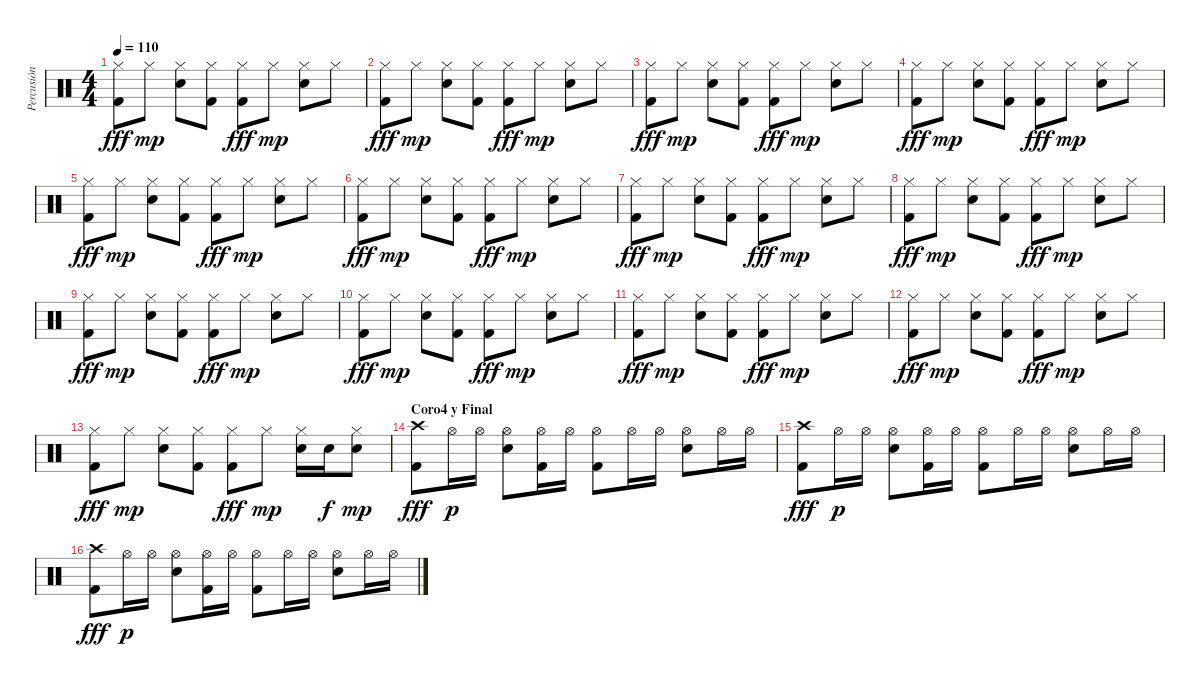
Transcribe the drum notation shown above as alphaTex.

\track ("Percusión" "Percusión") {instrument percussion}
\staff {score}
\articulation defaults
\ts (4 4)
\tempo 110
\clef neutral
\ks c
("Hi-Hat (closed)" "Kick (hit) 2").8{dy fff} "Hi-Hat (closed)".8{dy mp} ("Hi-Hat (closed)" "Snare (hit) 2").8 ("Hi-Hat (closed)" "Kick (hit) 2").8 ("Hi-Hat (closed)" "Kick (hit) 2").8{dy fff} "Hi-Hat (closed)".8{dy mp} ("Hi-Hat (closed)" "Snare (hit) 2").8 "Hi-Hat (closed)".8 |
("Hi-Hat (closed)" "Kick (hit) 2").8{dy fff} "Hi-Hat (closed)".8{dy mp} ("Hi-Hat (closed)" "Snare (hit) 2").8 ("Hi-Hat (closed)" "Kick (hit) 2").8 ("Hi-Hat (closed)" "Kick (hit) 2").8{dy fff} "Hi-Hat (closed)".8{dy mp} ("Hi-Hat (closed)" "Snare (hit) 2").8 "Hi-Hat (closed)".8 |
("Hi-Hat (closed)" "Kick (hit) 2").8{dy fff} "Hi-Hat (closed)".8{dy mp} ("Hi-Hat (closed)" "Snare (hit) 2").8 ("Hi-Hat (closed)" "Kick (hit) 2").8 ("Hi-Hat (closed)" "Kick (hit) 2").8{dy fff} "Hi-Hat (closed)".8{dy mp} ("Hi-Hat (closed)" "Snare (hit) 2").8 "Hi-Hat (closed)".8 |
("Hi-Hat (closed)" "Kick (hit) 2").8{dy fff} "Hi-Hat (closed)".8{dy mp} ("Hi-Hat (closed)" "Snare (hit) 2").8 ("Hi-Hat (closed)" "Kick (hit) 2").8 ("Hi-Hat (closed)" "Kick (hit) 2").8{dy fff} "Hi-Hat (closed)".8{dy mp} ("Hi-Hat (closed)" "Snare (hit) 2").8 "Hi-Hat (closed)".8 |
("Hi-Hat (closed)" "Kick (hit) 2").8{dy fff} "Hi-Hat (closed)".8{dy mp} ("Hi-Hat (closed)" "Snare (hit) 2").8 ("Hi-Hat (closed)" "Kick (hit) 2").8 ("Hi-Hat (closed)" "Kick (hit) 2").8{dy fff} "Hi-Hat (closed)".8{dy mp} ("Hi-Hat (closed)" "Snare (hit) 2").8 "Hi-Hat (closed)".8 |
("Hi-Hat (closed)" "Kick (hit) 2").8{dy fff} "Hi-Hat (closed)".8{dy mp} ("Hi-Hat (closed)" "Snare (hit) 2").8 ("Hi-Hat (closed)" "Kick (hit) 2").8 ("Hi-Hat (closed)" "Kick (hit) 2").8{dy fff} "Hi-Hat (closed)".8{dy mp} ("Hi-Hat (closed)" "Snare (hit) 2").8 "Hi-Hat (closed)".8 |
("Hi-Hat (closed)" "Kick (hit) 2").8{dy fff} "Hi-Hat (closed)".8{dy mp} ("Hi-Hat (closed)" "Snare (hit) 2").8 ("Hi-Hat (closed)" "Kick (hit) 2").8 ("Hi-Hat (closed)" "Kick (hit) 2").8{dy fff} "Hi-Hat (closed)".8{dy mp} ("Hi-Hat (closed)" "Snare (hit) 2").8 "Hi-Hat (closed)".8 |
("Hi-Hat (closed)" "Kick (hit) 2").8{dy fff} "Hi-Hat (closed)".8{dy mp} ("Hi-Hat (closed)" "Snare (hit) 2").8 ("Hi-Hat (closed)" "Kick (hit) 2").8 ("Hi-Hat (closed)" "Kick (hit) 2").8{dy fff} "Hi-Hat (closed)".8{dy mp} ("Hi-Hat (closed)" "Snare (hit) 2").8 "Hi-Hat (closed)".8 |
("Hi-Hat (closed)" "Kick (hit) 2").8{dy fff} "Hi-Hat (closed)".8{dy mp} ("Hi-Hat (closed)" "Snare (hit) 2").8 ("Hi-Hat (closed)" "Kick (hit) 2").8 ("Hi-Hat (closed)" "Kick (hit) 2").8{dy fff} "Hi-Hat (closed)".8{dy mp} ("Hi-Hat (closed)" "Snare (hit) 2").8 "Hi-Hat (closed)".8 |
("Hi-Hat (closed)" "Kick (hit) 2").8{dy fff} "Hi-Hat (closed)".8{dy mp} ("Hi-Hat (closed)" "Snare (hit) 2").8 ("Hi-Hat (closed)" "Kick (hit) 2").8 ("Hi-Hat (closed)" "Kick (hit) 2").8{dy fff} "Hi-Hat (closed)".8{dy mp} ("Hi-Hat (closed)" "Snare (hit) 2").8 "Hi-Hat (closed)".8 |
("Hi-Hat (closed)" "Kick (hit) 2").8{dy fff} "Hi-Hat (closed)".8{dy mp} ("Hi-Hat (closed)" "Snare (hit) 2").8 ("Hi-Hat (closed)" "Kick (hit) 2").8 ("Hi-Hat (closed)" "Kick (hit) 2").8{dy fff} "Hi-Hat (closed)".8{dy mp} ("Hi-Hat (closed)" "Snare (hit) 2").8 "Hi-Hat (closed)".8 |
("Hi-Hat (closed)" "Kick (hit) 2").8{dy fff} "Hi-Hat (closed)".8{dy mp} ("Hi-Hat (closed)" "Snare (hit) 2").8 ("Hi-Hat (closed)" "Kick (hit) 2").8 ("Hi-Hat (closed)" "Kick (hit) 2").8{dy fff} "Hi-Hat (closed)".8{dy mp} ("Hi-Hat (closed)" "Snare (hit) 2").8 "Hi-Hat (closed)".8 |
("Hi-Hat (closed)" "Kick (hit) 2").8{dy fff} "Hi-Hat (closed)".8{dy mp} ("Hi-Hat (closed)" "Snare (hit) 2").8 ("Hi-Hat (closed)" "Kick (hit) 2").8 ("Hi-Hat (closed)" "Kick (hit) 2").8{dy fff} "Hi-Hat (closed)".8{dy mp} ("Hi-Hat (closed)" "Snare (hit) 2").16 "Snare (hit) 2".16{dy f} ("Hi-Hat (closed)" "Snare (hit) 2").8{dy mp} |
\section ("" "Coro4 y Final")
("Crash high (hit)" "Kick (hit) 2").8{dy fff} "Hi-Hat (open)".16{dy p} "Hi-Hat (open)".16 ("Hi-Hat (open)" "Snare (hit) 2").8 ("Hi-Hat (open)" "Kick (hit) 2").16 "Hi-Hat (open)".16 ("Hi-Hat (open)" "Kick (hit) 2").8 "Hi-Hat (open)".16 "Hi-Hat (open)".16 ("Hi-Hat (open)" "Snare (hit) 2").8 "Hi-Hat (open)".16 "Hi-Hat (open)".16 |
("Crash high (hit)" "Kick (hit) 2").8{dy fff} "Hi-Hat (open)".16{dy p} "Hi-Hat (open)".16 ("Hi-Hat (open)" "Snare (hit) 2").8 ("Hi-Hat (open)" "Kick (hit) 2").16 "Hi-Hat (open)".16 ("Hi-Hat (open)" "Kick (hit) 2").8 "Hi-Hat (open)".16 "Hi-Hat (open)".16 ("Hi-Hat (open)" "Snare (hit) 2").8 "Hi-Hat (open)".16 "Hi-Hat (open)".16 |
("Crash high (hit)" "Kick (hit) 2").8{dy fff} "Hi-Hat (open)".16{dy p} "Hi-Hat (open)".16 ("Hi-Hat (open)" "Snare (hit) 2").8 ("Hi-Hat (open)" "Kick (hit) 2").16 "Hi-Hat (open)".16 ("Hi-Hat (open)" "Kick (hit) 2").8 "Hi-Hat (open)".16 "Hi-Hat (open)".16 ("Hi-Hat (open)" "Snare (hit) 2").8 "Hi-Hat (open)".16 "Hi-Hat (open)".16
